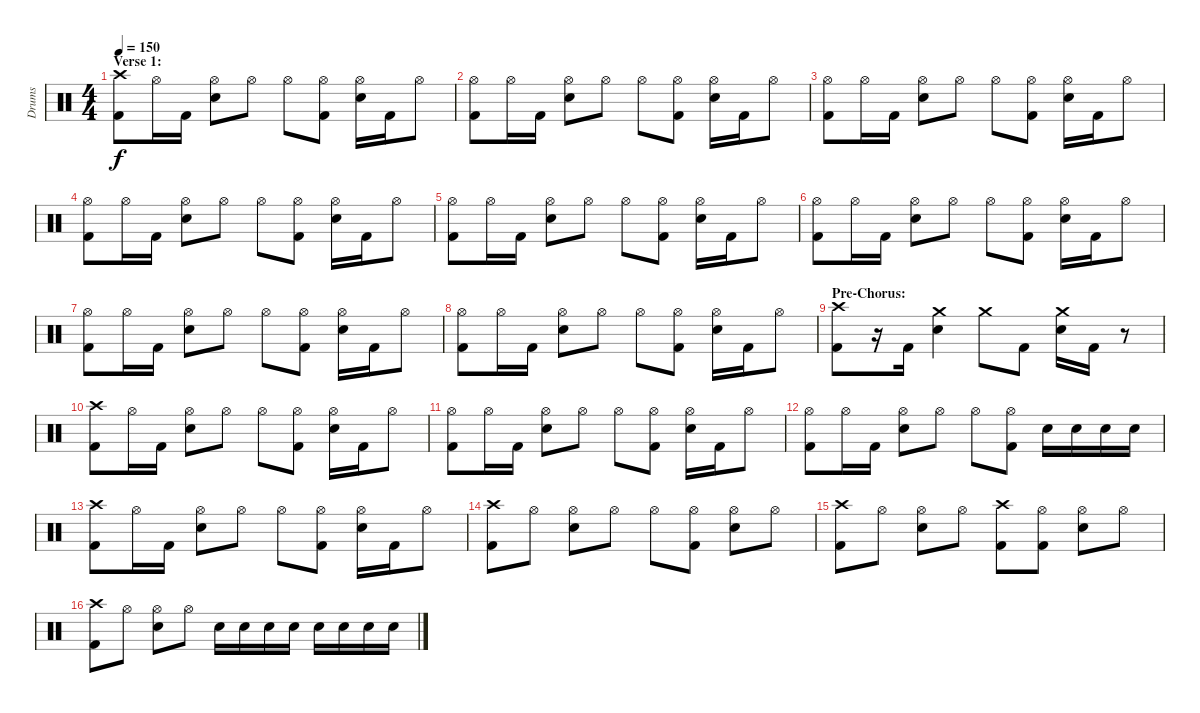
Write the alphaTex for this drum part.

\track ("Drums" "Drums") {instrument percussion}
\staff {score}
\articulation defaults
\ts (4 4)
\section ("" "Verse 1:")
\tempo 150
\clef neutral
\ks c
("Crash high (hit)" "Kick (hit) 2").8{dy f} "Hi-Hat (open)".16 "Kick (hit) 2".16 ("Hi-Hat (open)" "Electric Snare (hit)").8 "Hi-Hat (open)".8 "Hi-Hat (open)".8 ("Hi-Hat (open)" "Kick (hit) 2").8 ("Hi-Hat (open)" "Electric Snare (hit)").16 "Kick (hit) 2".16 "Hi-Hat (open)".8 |
("Hi-Hat (open)" "Kick (hit) 2").8 "Hi-Hat (open)".16 "Kick (hit) 2".16 ("Hi-Hat (open)" "Electric Snare (hit)").8 "Hi-Hat (open)".8 "Hi-Hat (open)".8 ("Hi-Hat (open)" "Kick (hit) 2").8 ("Hi-Hat (open)" "Electric Snare (hit)").16 "Kick (hit) 2".16 "Hi-Hat (open)".8 |
("Hi-Hat (open)" "Kick (hit) 2").8 "Hi-Hat (open)".16 "Kick (hit) 2".16 ("Hi-Hat (open)" "Electric Snare (hit)").8 "Hi-Hat (open)".8 "Hi-Hat (open)".8 ("Hi-Hat (open)" "Kick (hit) 2").8 ("Hi-Hat (open)" "Electric Snare (hit)").16 "Kick (hit) 2".16 "Hi-Hat (open)".8 |
("Hi-Hat (open)" "Kick (hit) 2").8 "Hi-Hat (open)".16 "Kick (hit) 2".16 ("Hi-Hat (open)" "Electric Snare (hit)").8 "Hi-Hat (open)".8 "Hi-Hat (open)".8 ("Hi-Hat (open)" "Kick (hit) 2").8 ("Hi-Hat (open)" "Electric Snare (hit)").16 "Kick (hit) 2".16 "Hi-Hat (open)".8 |
("Hi-Hat (open)" "Kick (hit) 2").8 "Hi-Hat (open)".16 "Kick (hit) 2".16 ("Hi-Hat (open)" "Electric Snare (hit)").8 "Hi-Hat (open)".8 "Hi-Hat (open)".8 ("Hi-Hat (open)" "Kick (hit) 2").8 ("Hi-Hat (open)" "Electric Snare (hit)").16 "Kick (hit) 2".16 "Hi-Hat (open)".8 |
("Hi-Hat (open)" "Kick (hit) 2").8 "Hi-Hat (open)".16 "Kick (hit) 2".16 ("Hi-Hat (open)" "Electric Snare (hit)").8 "Hi-Hat (open)".8 "Hi-Hat (open)".8 ("Hi-Hat (open)" "Kick (hit) 2").8 ("Hi-Hat (open)" "Electric Snare (hit)").16 "Kick (hit) 2".16 "Hi-Hat (open)".8 |
("Hi-Hat (open)" "Kick (hit) 2").8 "Hi-Hat (open)".16 "Kick (hit) 2".16 ("Hi-Hat (open)" "Electric Snare (hit)").8 "Hi-Hat (open)".8 "Hi-Hat (open)".8 ("Hi-Hat (open)" "Kick (hit) 2").8 ("Hi-Hat (open)" "Electric Snare (hit)").16 "Kick (hit) 2".16 "Hi-Hat (open)".8 |
("Hi-Hat (open)" "Kick (hit) 2").8 "Hi-Hat (open)".16 "Kick (hit) 2".16 ("Hi-Hat (open)" "Electric Snare (hit)").8 "Hi-Hat (open)".8 "Hi-Hat (open)".8 ("Hi-Hat (open)" "Kick (hit) 2").8 ("Hi-Hat (open)" "Electric Snare (hit)").16 "Kick (hit) 2".16 "Hi-Hat (open)".8 |
\section ("" "Pre-Chorus:")
("Crash high (hit)" "Kick (hit) 2").8 r.16 "Kick (hit) 2".16 ("Crash medium (hit)" "Electric Snare (hit)").4 "Crash medium (hit)".8 "Kick (hit) 2".8 ("Crash medium (hit)" "Electric Snare (hit)").16 "Kick (hit) 2".16 r.8 |
("Crash high (hit)" "Kick (hit) 2").8 "Hi-Hat (open)".16 "Kick (hit) 2".16 ("Hi-Hat (open)" "Electric Snare (hit)").8 "Hi-Hat (open)".8 "Hi-Hat (open)".8 ("Hi-Hat (open)" "Kick (hit) 2").8 ("Hi-Hat (open)" "Electric Snare (hit)").16 "Kick (hit) 2".16 "Hi-Hat (open)".8 |
("Hi-Hat (open)" "Kick (hit) 2").8 "Hi-Hat (open)".16 "Kick (hit) 2".16 ("Hi-Hat (open)" "Electric Snare (hit)").8 "Hi-Hat (open)".8 "Hi-Hat (open)".8 ("Hi-Hat (open)" "Kick (hit) 2").8 ("Hi-Hat (open)" "Electric Snare (hit)").16 "Kick (hit) 2".16 "Hi-Hat (open)".8 |
("Hi-Hat (open)" "Kick (hit) 2").8 "Hi-Hat (open)".16 "Kick (hit) 2".16 ("Hi-Hat (open)" "Electric Snare (hit)").8 "Hi-Hat (open)".8 "Hi-Hat (open)".8 ("Hi-Hat (open)" "Kick (hit) 2").8 "Electric Snare (hit)".16 "Electric Snare (hit)".16 "Electric Snare (hit)".16 "Electric Snare (hit)".16 |
("Crash high (hit)" "Kick (hit) 2").8 "Hi-Hat (open)".16 "Kick (hit) 2".16 ("Hi-Hat (open)" "Electric Snare (hit)").8 "Hi-Hat (open)".8 "Hi-Hat (open)".8 ("Hi-Hat (open)" "Kick (hit) 2").8 ("Hi-Hat (open)" "Electric Snare (hit)").16 "Kick (hit) 2".16 "Hi-Hat (open)".8 |
("Crash high (hit)" "Kick (hit) 2").8 "Hi-Hat (open)".8 ("Hi-Hat (open)" "Electric Snare (hit)").8 "Hi-Hat (open)".8 "Hi-Hat (open)".8 ("Hi-Hat (open)" "Kick (hit) 2").8 ("Hi-Hat (open)" "Electric Snare (hit)").8 "Hi-Hat (open)".8 |
("Crash high (hit)" "Kick (hit) 2").8 "Hi-Hat (open)".8 ("Hi-Hat (open)" "Electric Snare (hit)").8 "Hi-Hat (open)".8 ("Crash high (hit)" "Kick (hit) 2").8 ("Hi-Hat (open)" "Kick (hit) 2").8 ("Hi-Hat (open)" "Electric Snare (hit)").8 "Hi-Hat (open)".8 |
("Crash high (hit)" "Kick (hit) 2").8 "Hi-Hat (open)".8 ("Hi-Hat (open)" "Electric Snare (hit)").8 "Hi-Hat (open)".8 "Electric Snare (hit)".16 "Electric Snare (hit)".16 "Electric Snare (hit)".16 "Electric Snare (hit)".16 "Electric Snare (hit)".16 "Electric Snare (hit)".16 "Electric Snare (hit)".16 "Electric Snare (hit)".16
